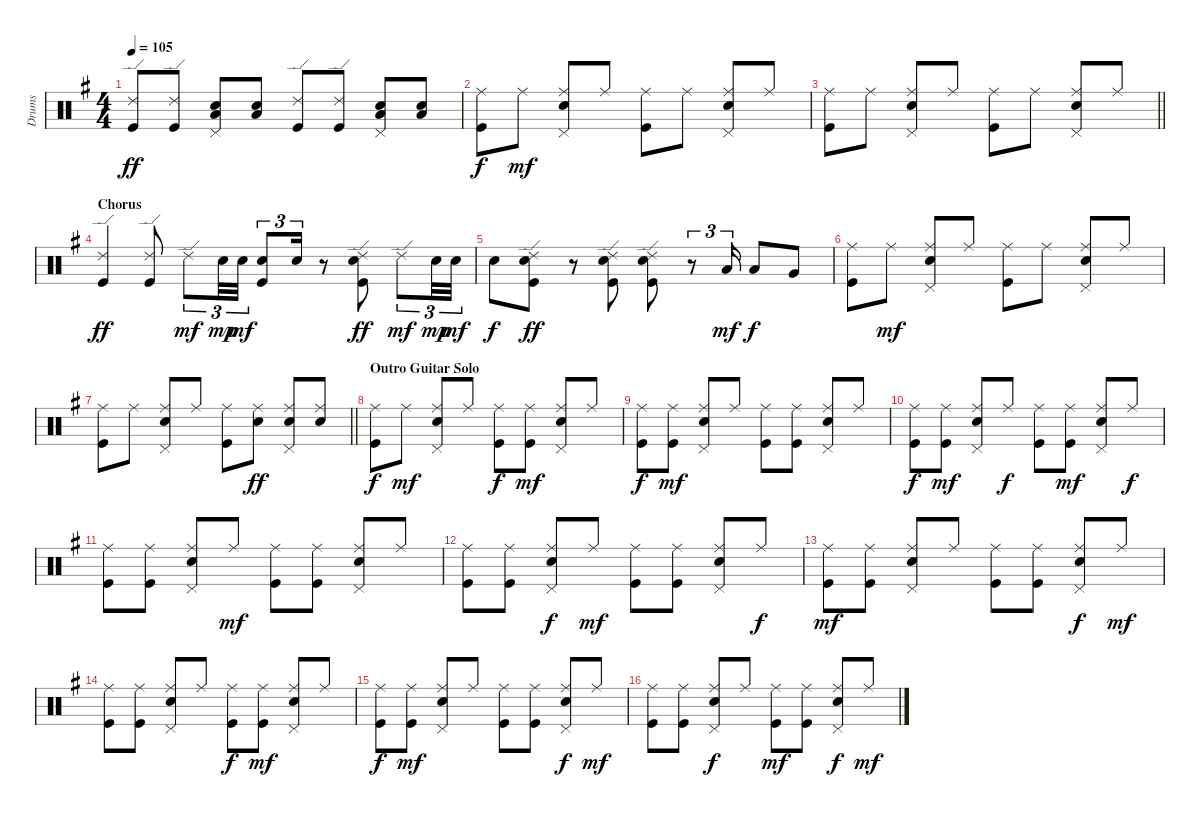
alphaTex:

\track ("Drums" "Drums") {instrument percussion}
\staff {score}
\articulation defaults
\ts (4 4)
\tempo 105
\clef neutral
\ks eminor
("Ride (edge) 2" "Kick (hit)").8{dy ff} ("Ride (edge) 2" "Kick (hit)").8 ("Pedal Hi-Hat (hit)" "Snare (hit) 2" "Low Tom (hit)").8 ("Snare (hit) 2" "Low Tom (hit)").8 ("Ride (edge) 2" "Kick (hit)").8 ("Ride (edge) 2" "Kick (hit)").8 ("Pedal Hi-Hat (hit)" "Snare (hit) 2" "Low Tom (hit)").8 ("Snare (hit) 2" "Low Tom (hit)").8 |
("Ride (middle)" "Kick (hit)").8{dy f} "Ride (middle)".8{dy mf} ("Ride (middle)" "Pedal Hi-Hat (hit)" "Snare (hit) 2").8 "Ride (middle)".8 ("Ride (middle)" "Kick (hit)").8 "Ride (middle)".8 ("Ride (middle)" "Pedal Hi-Hat (hit)" "Snare (hit) 2").8 "Ride (middle)".8 |
\barLineRight lightlight
("Ride (middle)" "Kick (hit)").8 "Ride (middle)".8 ("Ride (middle)" "Pedal Hi-Hat (hit)" "Snare (hit) 2").8 "Ride (middle)".8 ("Ride (middle)" "Kick (hit)").8 "Ride (middle)".8 ("Ride (middle)" "Pedal Hi-Hat (hit)" "Snare (hit) 2").8 "Ride (middle)".8 |
\section ("" "Chorus")
("Ride (edge) 2" "Kick (hit)").4{dy ff} ("Ride (edge) 2" "Kick (hit)").8 "Ride (edge) 2".8{tu (3 2) dy mf} "Snare (hit) 2".32{tu (3 2) dy mp} "Snare (hit) 2".32{tu (3 2) dy mf} ("Snare (hit) 2" "Kick (hit)").8{tu (3 2)} "Snare (hit) 2".16{tu (3 2)} r.8 ("Ride (edge) 2" "Snare (hit) 2" "Kick (hit)").8{dy ff} "Ride (edge) 2".8{tu (3 2) dy mf} "Snare (hit) 2".32{tu (3 2) dy mp} "Snare (hit) 2".32{tu (3 2) dy mf} |
"Snare (hit) 2".8{dy f} ("Ride (edge) 2" "Snare (hit) 2" "Kick (hit)").8{dy ff} r.8 ("Ride (edge) 2" "Snare (hit) 2" "Kick (hit)").8 ("Ride (edge) 2" "Snare (hit) 2" "Kick (hit)").8 r.8{tu (3 2)} "Low Tom (hit)".16{tu (3 2) dy mf} "Low Tom (hit)".8{dy f} "Very Low Tom (hit)".8 |
("Ride (middle)" "Kick (hit)").8 "Ride (middle)".8{dy mf} ("Ride (middle)" "Pedal Hi-Hat (hit)" "Snare (hit) 2").8 "Ride (middle)".8 ("Ride (middle)" "Kick (hit)").8 "Ride (middle)".8 ("Ride (middle)" "Pedal Hi-Hat (hit)" "Snare (hit) 2").8 "Ride (middle)".8 |
\barLineRight lightlight
("Ride (middle)" "Kick (hit)").8 "Ride (middle)".8 ("Ride (middle)" "Pedal Hi-Hat (hit)" "Snare (hit) 2").8 "Ride (middle)".8 ("Ride (middle)" "Kick (hit)").8 ("Ride (middle)" "Snare (hit) 2").8{dy ff} ("Ride (middle)" "Pedal Hi-Hat (hit)" "Snare (hit) 2").8 ("Ride (middle)" "Snare (hit) 2").8 |
\section ("" "Outro Guitar Solo")
("Ride (middle)" "Kick (hit)").8{dy f} "Ride (middle)".8{dy mf} ("Ride (middle)" "Pedal Hi-Hat (hit)" "Snare (hit) 2").8 "Ride (middle)".8 ("Ride (middle)" "Kick (hit)").8{dy f} ("Ride (middle)" "Kick (hit)").8{dy mf} ("Ride (middle)" "Pedal Hi-Hat (hit)" "Snare (hit) 2").8 "Ride (middle)".8 |
("Ride (middle)" "Kick (hit)").8{dy f} ("Ride (middle)" "Kick (hit)").8{dy mf} ("Ride (middle)" "Pedal Hi-Hat (hit)" "Snare (hit) 2").8 "Ride (middle)".8 ("Ride (middle)" "Kick (hit)").8 ("Ride (middle)" "Kick (hit)").8 ("Ride (middle)" "Pedal Hi-Hat (hit)" "Snare (hit) 2").8 "Ride (middle)".8 |
("Ride (middle)" "Kick (hit)").8{dy f} ("Ride (middle)" "Kick (hit)").8{dy mf} ("Ride (middle)" "Pedal Hi-Hat (hit)" "Snare (hit) 2").8 "Ride (middle)".8{dy f} ("Ride (middle)" "Kick (hit)").8 ("Ride (middle)" "Kick (hit)").8{dy mf} ("Ride (middle)" "Pedal Hi-Hat (hit)" "Snare (hit) 2").8 "Ride (middle)".8{dy f} |
("Ride (middle)" "Kick (hit)").8 ("Ride (middle)" "Kick (hit)").8 ("Ride (middle)" "Pedal Hi-Hat (hit)" "Snare (hit) 2").8 "Ride (middle)".8{dy mf} ("Ride (middle)" "Kick (hit)").8 ("Ride (middle)" "Kick (hit)").8 ("Ride (middle)" "Pedal Hi-Hat (hit)" "Snare (hit) 2").8 "Ride (middle)".8 |
("Ride (middle)" "Kick (hit)").8 ("Ride (middle)" "Kick (hit)").8 ("Ride (middle)" "Pedal Hi-Hat (hit)" "Snare (hit) 2").8{dy f} "Ride (middle)".8{dy mf} ("Ride (middle)" "Kick (hit)").8 ("Ride (middle)" "Kick (hit)").8 ("Ride (middle)" "Pedal Hi-Hat (hit)" "Snare (hit) 2").8 "Ride (middle)".8{dy f} |
("Ride (middle)" "Kick (hit)").8{dy mf} ("Ride (middle)" "Kick (hit)").8 ("Ride (middle)" "Pedal Hi-Hat (hit)" "Snare (hit) 2").8 "Ride (middle)".8 ("Ride (middle)" "Kick (hit)").8 ("Ride (middle)" "Kick (hit)").8 ("Ride (middle)" "Pedal Hi-Hat (hit)" "Snare (hit) 2").8{dy f} "Ride (middle)".8{dy mf} |
("Ride (middle)" "Kick (hit)").8 ("Ride (middle)" "Kick (hit)").8 ("Ride (middle)" "Pedal Hi-Hat (hit)" "Snare (hit) 2").8 "Ride (middle)".8 ("Ride (middle)" "Kick (hit)").8{dy f} ("Ride (middle)" "Kick (hit)").8{dy mf} ("Ride (middle)" "Pedal Hi-Hat (hit)" "Snare (hit) 2").8 "Ride (middle)".8 |
("Ride (middle)" "Kick (hit)").8{dy f} ("Ride (middle)" "Kick (hit)").8{dy mf} ("Ride (middle)" "Pedal Hi-Hat (hit)" "Snare (hit) 2").8 "Ride (middle)".8 ("Ride (middle)" "Kick (hit)").8 ("Ride (middle)" "Kick (hit)").8 ("Ride (middle)" "Pedal Hi-Hat (hit)" "Snare (hit) 2").8{dy f} "Ride (middle)".8{dy mf} |
("Ride (middle)" "Kick (hit)").8 ("Ride (middle)" "Kick (hit)").8 ("Ride (middle)" "Pedal Hi-Hat (hit)" "Snare (hit) 2").8{dy f} "Ride (middle)".8 ("Ride (middle)" "Kick (hit)").8{dy mf} ("Ride (middle)" "Kick (hit)").8 ("Ride (middle)" "Pedal Hi-Hat (hit)" "Snare (hit) 2").8{dy f} "Ride (middle)".8{dy mf}
